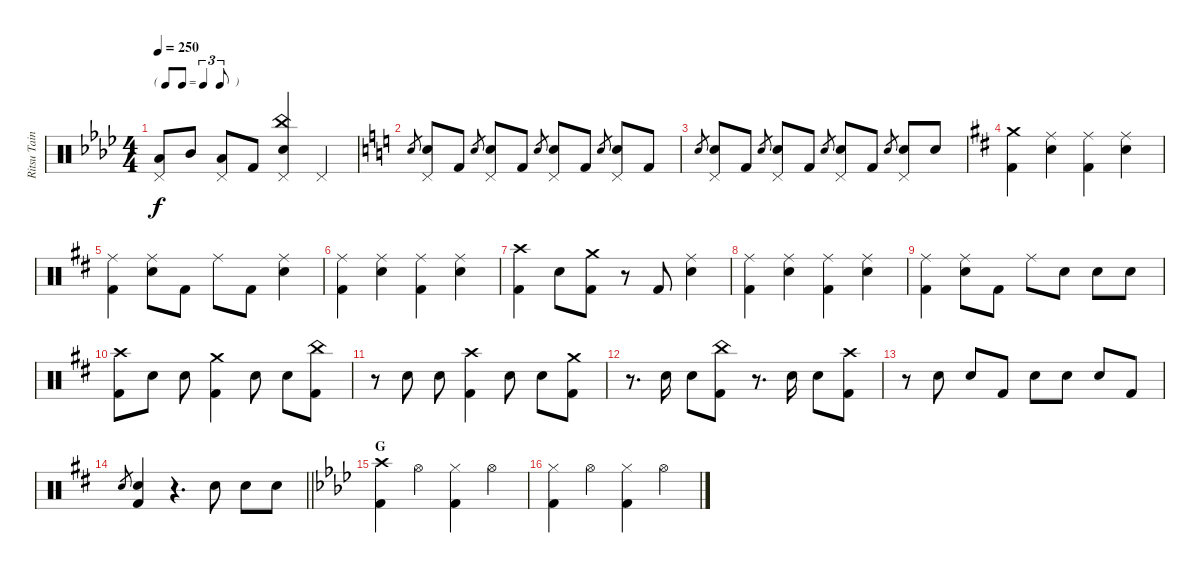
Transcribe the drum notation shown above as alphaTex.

\track ("Ritsu Tainaka" "Ritsu Tain") {instrument percussion}
\staff {score}
\articulation defaults
\ts (4 4)
\tf triplet8th
\tempo 250
\clef neutral
\ks ab
("Pedal Hi-Hat (hit)" "Low Floor Tom (hit)").8{dy f} "Mid Tom (hit)".8 ("Pedal Hi-Hat (hit)" "Low Floor Tom (hit)").8 "Kick (hit) 2".8 ("China (hit)" "Pedal Hi-Hat (hit)" "Electric Snare (hit)").4 "Pedal Hi-Hat (hit)".4 |
\ks c "Electric Snare (hit)".8{gr}
("Pedal Hi-Hat (hit)" "Electric Snare (hit)").8 "Kick (hit) 2".8 "Electric Snare (hit)".8{gr} ("Pedal Hi-Hat (hit)" "Electric Snare (hit)").8 "Kick (hit) 2".8 "Electric Snare (hit)".8{gr} ("Pedal Hi-Hat (hit)" "Electric Snare (hit)").8 "Kick (hit) 2".8 "Electric Snare (hit)".8{gr} ("Pedal Hi-Hat (hit)" "Electric Snare (hit)").8 "Kick (hit) 2".8 |
"Electric Snare (hit)".8{gr} ("Pedal Hi-Hat (hit)" "Electric Snare (hit)").8 "Kick (hit) 2".8 "Electric Snare (hit)".8{gr} ("Pedal Hi-Hat (hit)" "Electric Snare (hit)").8 "Kick (hit) 2".8 "Electric Snare (hit)".8{gr} ("Pedal Hi-Hat (hit)" "Electric Snare (hit)").8 "Kick (hit) 2".8 "Electric Snare (hit)".8{gr} ("Pedal Hi-Hat (hit)" "Electric Snare (hit)").8 "Electric Snare (hit)".8 |
\ks d
("Crash medium (hit)" "Kick (hit) 2").4 ("Ride (middle)" "Electric Snare (hit)").4 ("Ride (middle)" "Kick (hit) 2").4 ("Ride (middle)" "Electric Snare (hit)").4 |
("Ride (middle)" "Kick (hit) 2").4 ("Ride (middle)" "Electric Snare (hit)").8 "Kick (hit) 2".8 "Ride (middle)".8 "Kick (hit) 2".8 ("Ride (middle)" "Electric Snare (hit)").4 |
("Ride (middle)" "Kick (hit) 2").4 ("Ride (middle)" "Electric Snare (hit)").4 ("Ride (middle)" "Kick (hit) 2").4 ("Ride (middle)" "Electric Snare (hit)").4 |
("Crash high (hit)" "Kick (hit) 2").4 "Electric Snare (hit)".8 ("Crash medium (hit)" "Kick (hit) 2").8 r.8 "Kick (hit) 2".8 ("Ride (middle)" "Electric Snare (hit)").4 |
("Ride (middle)" "Kick (hit) 2").4 ("Ride (middle)" "Electric Snare (hit)").4 ("Ride (middle)" "Kick (hit) 2").4 ("Ride (middle)" "Electric Snare (hit)").4 |
("Ride (middle)" "Kick (hit) 2").4 ("Ride (middle)" "Electric Snare (hit)").8 "Kick (hit) 2".8 "Ride (middle)".8 "Electric Snare (hit)".8 "Electric Snare (hit)".8 "Electric Snare (hit)".8 |
("Crash high (hit)" "Kick (hit) 2").8 "Electric Snare (hit)".8 "Electric Snare (hit)".8 ("Crash medium (hit)" "Kick (hit) 2").4 "Electric Snare (hit)".8 "Electric Snare (hit)".8 ("China (hit)" "Kick (hit) 2").8 |
r.8 "Electric Snare (hit)".8 "Electric Snare (hit)".8 ("Crash high (hit)" "Kick (hit) 2").4 "Electric Snare (hit)".8 "Electric Snare (hit)".8 ("Crash medium (hit)" "Kick (hit) 2").8 |
r.8{d} "Electric Snare (hit)".16 "Electric Snare (hit)".8 ("China (hit)" "Kick (hit) 2").8 r.8{d} "Electric Snare (hit)".16 "Electric Snare (hit)".8 ("Crash high (hit)" "Kick (hit) 2").8 |
r.8 "Electric Snare (hit)".8 "Electric Snare (hit)".8 "Kick (hit) 2".8 "Electric Snare (hit)".8 "Electric Snare (hit)".8 "Electric Snare (hit)".8 "Kick (hit) 2".8 |
\barLineRight lightlight "Electric Snare (hit)".8{gr}
("Electric Snare (hit)" "Kick (hit) 2").4 r.4{d} "Electric Snare (hit)".8 "Electric Snare (hit)".8 "Electric Snare (hit)".8 |
\section ("" "G")
\ks ab
("Crash high (hit)" "Kick (hit) 2").4 "Hi-Hat (open)".4 ("Hi-Hat (closed)" "Kick (hit) 2").4 "Hi-Hat (open)".4 |
("Hi-Hat (closed)" "Kick (hit) 2").4 "Hi-Hat (open)".4 ("Hi-Hat (closed)" "Kick (hit) 2").4 "Hi-Hat (open)".4
